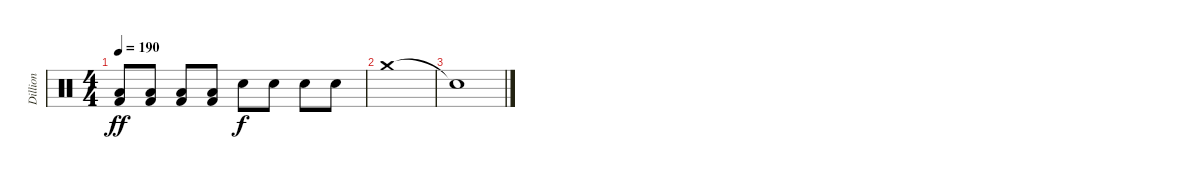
\track ("Dillion" "Dillion") {instrument percussion}
\staff {score}
\articulation defaults
\ts (4 4)
\tempo 190
\clef neutral
\ks c
("Low Tom (hit)" "Kick (hit) 2").8{dy ff} ("Low Tom (hit)" "Kick (hit) 2").8 ("Low Tom (hit)" "Kick (hit) 2").8 ("Low Tom (hit)" "Kick (hit) 2").8 "Electric Snare (hit)".8{dy f} "Electric Snare (hit)".8 "Electric Snare (hit)".8 "Electric Snare (hit)".8 |
"Crash medium (hit)".1 |
"Snare (hit)"{t}.1
